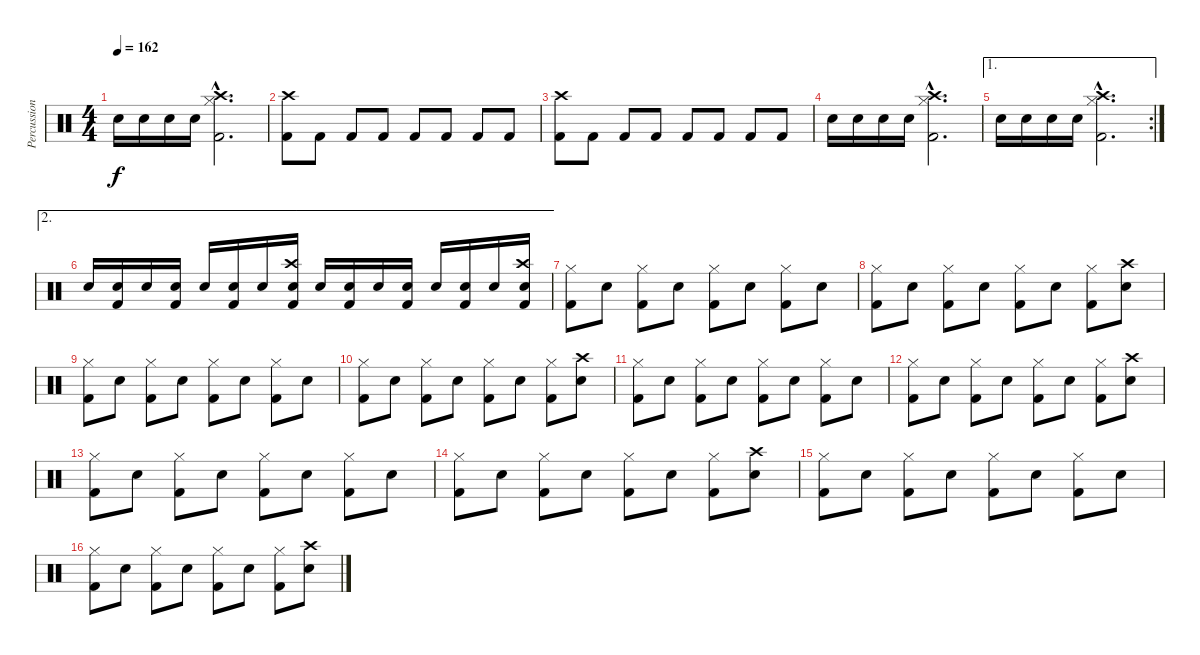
\track ("Percussion" "Percussion") {instrument percussion}
\staff {score}
\articulation defaults
\ts (4 4)
\tempo 162
\clef neutral
\ks c "Snare (hit) 2".16{dy f} "Snare (hit) 2".16 "Snare (hit) 2".16 "Snare (hit) 2".16
("Hi-Hat (closed)"{hac} "Crash high (hit)"{hac} "Kick (hit) 2"{hac}).2{d} |
("Crash high (hit)" "Kick (hit) 2").8 "Kick (hit) 2".8 "Kick (hit) 2".8 "Kick (hit) 2".8 "Kick (hit) 2".8 "Kick (hit) 2".8 "Kick (hit) 2".8 "Kick (hit) 2".8 |
("Crash high (hit)" "Kick (hit) 2").8 "Kick (hit) 2".8 "Kick (hit) 2".8 "Kick (hit) 2".8 "Kick (hit) 2".8 "Kick (hit) 2".8 "Kick (hit) 2".8 "Kick (hit) 2".8 |
"Snare (hit) 2".16 "Snare (hit) 2".16 "Snare (hit) 2".16 "Snare (hit) 2".16 ("Hi-Hat (closed)"{hac} "Crash high (hit)"{hac} "Kick (hit) 2"{hac}).2{d} |
\ae 1
\rc 2 "Snare (hit) 2".16 "Snare (hit) 2".16 "Snare (hit) 2".16 "Snare (hit) 2".16
("Hi-Hat (closed)"{hac} "Crash high (hit)"{hac} "Kick (hit) 2"{hac}).2{d} |
\ae 2 "Snare (hit) 2".16
("Snare (hit) 2" "Kick (hit) 2").16 "Snare (hit) 2".16 ("Snare (hit) 2" "Kick (hit) 2").16 "Snare (hit) 2".16 ("Snare (hit) 2" "Kick (hit) 2").16 "Snare (hit) 2".16 ("Crash high (hit)" "Snare (hit) 2" "Kick (hit) 2").16 "Snare (hit) 2".16 ("Snare (hit) 2" "Kick (hit) 2").16 "Snare (hit) 2".16 ("Snare (hit) 2" "Kick (hit) 2").16 "Snare (hit) 2".16 ("Snare (hit) 2" "Kick (hit) 2").16 "Snare (hit) 2".16 ("Crash high (hit)" "Snare (hit) 2" "Kick (hit) 2").16 |
("Hi-Hat (closed)" "Kick (hit) 2").8 "Snare (hit) 2".8 ("Hi-Hat (closed)" "Kick (hit) 2").8 "Snare (hit) 2".8 ("Hi-Hat (closed)" "Kick (hit) 2").8 "Snare (hit) 2".8 ("Hi-Hat (closed)" "Kick (hit) 2").8 "Snare (hit) 2".8 |
("Hi-Hat (closed)" "Kick (hit) 2").8 "Snare (hit) 2".8 ("Hi-Hat (closed)" "Kick (hit) 2").8 "Snare (hit) 2".8 ("Hi-Hat (closed)" "Kick (hit) 2").8 "Snare (hit) 2".8 ("Hi-Hat (closed)" "Kick (hit) 2").8 ("Crash high (hit)" "Snare (hit) 2").8 |
("Hi-Hat (closed)" "Kick (hit) 2").8 "Snare (hit) 2".8 ("Hi-Hat (closed)" "Kick (hit) 2").8 "Snare (hit) 2".8 ("Hi-Hat (closed)" "Kick (hit) 2").8 "Snare (hit) 2".8 ("Hi-Hat (closed)" "Kick (hit) 2").8 "Snare (hit) 2".8 |
("Hi-Hat (closed)" "Kick (hit) 2").8 "Snare (hit) 2".8 ("Hi-Hat (closed)" "Kick (hit) 2").8 "Snare (hit) 2".8 ("Hi-Hat (closed)" "Kick (hit) 2").8 "Snare (hit) 2".8 ("Hi-Hat (closed)" "Kick (hit) 2").8 ("Crash high (hit)" "Snare (hit) 2").8 |
("Hi-Hat (closed)" "Kick (hit) 2").8 "Snare (hit) 2".8 ("Hi-Hat (closed)" "Kick (hit) 2").8 "Snare (hit) 2".8 ("Hi-Hat (closed)" "Kick (hit) 2").8 "Snare (hit) 2".8 ("Hi-Hat (closed)" "Kick (hit) 2").8 "Snare (hit) 2".8 |
("Hi-Hat (closed)" "Kick (hit) 2").8 "Snare (hit) 2".8 ("Hi-Hat (closed)" "Kick (hit) 2").8 "Snare (hit) 2".8 ("Hi-Hat (closed)" "Kick (hit) 2").8 "Snare (hit) 2".8 ("Hi-Hat (closed)" "Kick (hit) 2").8 ("Crash high (hit)" "Snare (hit) 2").8 |
("Hi-Hat (closed)" "Kick (hit) 2").8 "Snare (hit) 2".8 ("Hi-Hat (closed)" "Kick (hit) 2").8 "Snare (hit) 2".8 ("Hi-Hat (closed)" "Kick (hit) 2").8 "Snare (hit) 2".8 ("Hi-Hat (closed)" "Kick (hit) 2").8 "Snare (hit) 2".8 |
("Hi-Hat (closed)" "Kick (hit) 2").8 "Snare (hit) 2".8 ("Hi-Hat (closed)" "Kick (hit) 2").8 "Snare (hit) 2".8 ("Hi-Hat (closed)" "Kick (hit) 2").8 "Snare (hit) 2".8 ("Hi-Hat (closed)" "Kick (hit) 2").8 ("Crash high (hit)" "Snare (hit) 2").8 |
("Hi-Hat (closed)" "Kick (hit) 2").8 "Snare (hit) 2".8 ("Hi-Hat (closed)" "Kick (hit) 2").8 "Snare (hit) 2".8 ("Hi-Hat (closed)" "Kick (hit) 2").8 "Snare (hit) 2".8 ("Hi-Hat (closed)" "Kick (hit) 2").8 "Snare (hit) 2".8 |
("Hi-Hat (closed)" "Kick (hit) 2").8 "Snare (hit) 2".8 ("Hi-Hat (closed)" "Kick (hit) 2").8 "Snare (hit) 2".8 ("Hi-Hat (closed)" "Kick (hit) 2").8 "Snare (hit) 2".8 ("Hi-Hat (closed)" "Kick (hit) 2").8 ("Crash high (hit)" "Snare (hit) 2").8
